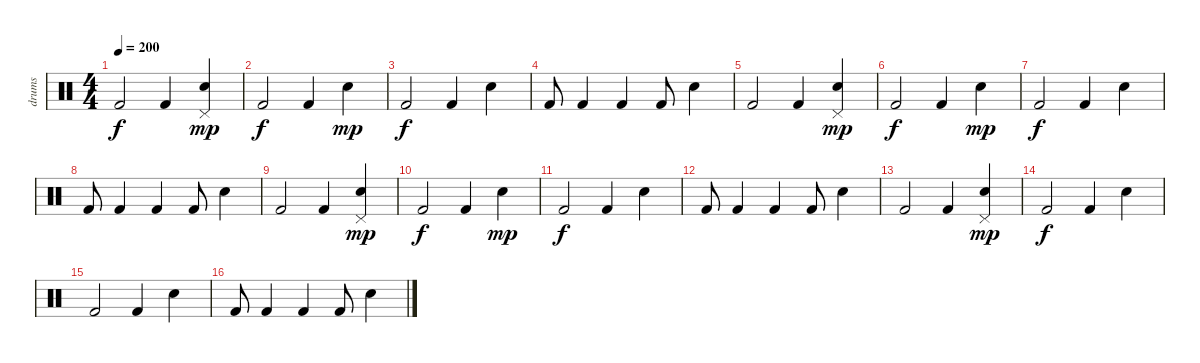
\track ("drums" "drums") {instrument percussion}
\staff {score}
\articulation defaults
\ts (4 4)
\tempo 200
\clef neutral
\ks c "Kick (hit) 2".2{dy f} "Kick (hit) 2".4
("Pedal Hi-Hat (hit)" "Electric Snare (hit)").4{dy mp} |
"Kick (hit) 2".2{dy f} "Kick (hit) 2".4 "Electric Snare (hit)".4{dy mp} |
"Kick (hit) 2".2{dy f} "Kick (hit) 2".4 "Electric Snare (hit)".4 |
"Kick (hit) 2".8 "Kick (hit) 2".4 "Kick (hit) 2".4 "Kick (hit) 2".8 "Electric Snare (hit)".4 |
"Kick (hit) 2".2 "Kick (hit) 2".4 ("Pedal Hi-Hat (hit)" "Electric Snare (hit)").4{dy mp} |
"Kick (hit) 2".2{dy f} "Kick (hit) 2".4 "Electric Snare (hit)".4{dy mp} |
"Kick (hit) 2".2{dy f} "Kick (hit) 2".4 "Electric Snare (hit)".4 |
"Kick (hit) 2".8 "Kick (hit) 2".4 "Kick (hit) 2".4 "Kick (hit) 2".8 "Electric Snare (hit)".4 |
"Kick (hit) 2".2 "Kick (hit) 2".4 ("Pedal Hi-Hat (hit)" "Electric Snare (hit)").4{dy mp} |
"Kick (hit) 2".2{dy f} "Kick (hit) 2".4 "Electric Snare (hit)".4{dy mp} |
"Kick (hit) 2".2{dy f} "Kick (hit) 2".4 "Electric Snare (hit)".4 |
"Kick (hit) 2".8 "Kick (hit) 2".4 "Kick (hit) 2".4 "Kick (hit) 2".8 "Electric Snare (hit)".4 |
"Kick (hit) 2".2 "Kick (hit) 2".4 ("Pedal Hi-Hat (hit)" "Electric Snare (hit)").4{dy mp} |
"Kick (hit) 2".2{dy f} "Kick (hit) 2".4 "Electric Snare (hit)".4 |
"Kick (hit) 2".2 "Kick (hit) 2".4 "Electric Snare (hit)".4 |
"Kick (hit) 2".8 "Kick (hit) 2".4 "Kick (hit) 2".4 "Kick (hit) 2".8 "Electric Snare (hit)".4
